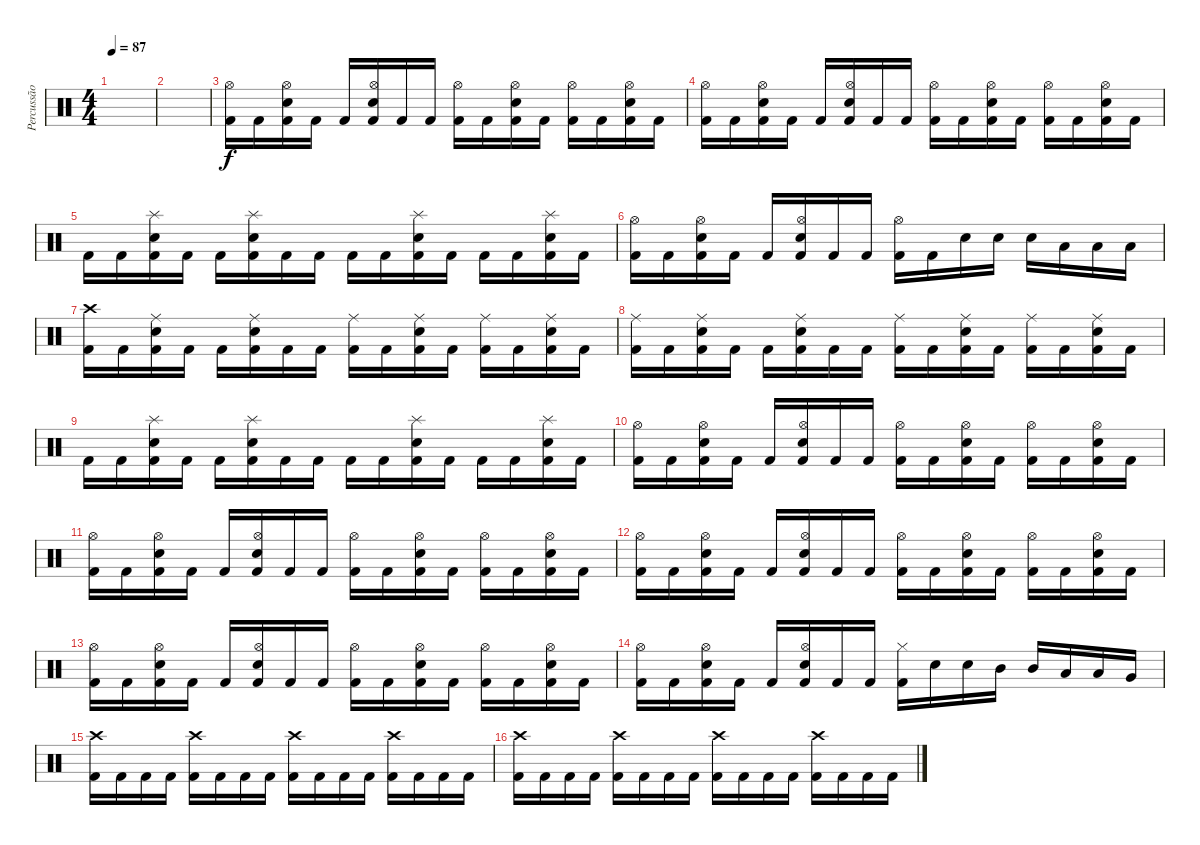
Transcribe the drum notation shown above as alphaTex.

\track ("Percussão" "Percussão") {instrument percussion}
\staff {score}
\articulation defaults
\ts (4 4)
\tempo 87
\clef neutral
\ks c
|
|
("Kick (hit) 2" "Hi-Hat (open)").16 "Kick (hit) 2".16 ("Kick (hit) 2" "Electric Snare (hit)" "Hi-Hat (open)").16 "Kick (hit) 2".16 "Kick (hit) 2".16 ("Kick (hit) 2" "Electric Snare (hit)" "Hi-Hat (open)").16 "Kick (hit) 2".16 "Kick (hit) 2".16 ("Kick (hit) 2" "Hi-Hat (open)").16 "Kick (hit) 2".16 ("Kick (hit) 2" "Electric Snare (hit)" "Hi-Hat (open)").16 "Kick (hit) 2".16 ("Kick (hit) 2" "Hi-Hat (open)").16 "Kick (hit) 2".16 ("Kick (hit) 2" "Electric Snare (hit)" "Hi-Hat (open)").16 "Kick (hit) 2".16 |
("Kick (hit) 2" "Hi-Hat (open)").16 "Kick (hit) 2".16 ("Kick (hit) 2" "Electric Snare (hit)" "Hi-Hat (open)").16 "Kick (hit) 2".16 "Kick (hit) 2".16 ("Kick (hit) 2" "Electric Snare (hit)" "Hi-Hat (open)").16 "Kick (hit) 2".16 "Kick (hit) 2".16 ("Kick (hit) 2" "Hi-Hat (open)").16 "Kick (hit) 2".16 ("Kick (hit) 2" "Electric Snare (hit)" "Hi-Hat (open)").16 "Kick (hit) 2".16 ("Kick (hit) 2" "Hi-Hat (open)").16 "Kick (hit) 2".16 ("Kick (hit) 2" "Electric Snare (hit)" "Hi-Hat (open)").16 "Kick (hit) 2".16 |
"Kick (hit) 2".16 "Kick (hit) 2".16 ("Kick (hit) 2" "Electric Snare (hit)" "Splash (hit)").16 "Kick (hit) 2".16 "Kick (hit) 2".16 ("Kick (hit) 2" "Electric Snare (hit)" "Splash (hit)").16 "Kick (hit) 2".16 "Kick (hit) 2".16 "Kick (hit) 2".16 "Kick (hit) 2".16 ("Kick (hit) 2" "Electric Snare (hit)" "Splash (hit)").16 "Kick (hit) 2".16 "Kick (hit) 2".16 "Kick (hit) 2".16 ("Kick (hit) 2" "Electric Snare (hit)" "Splash (hit)").16 "Kick (hit) 2".16 |
("Kick (hit) 2" "Hi-Hat (open)").16 "Kick (hit) 2".16 ("Kick (hit) 2" "Electric Snare (hit)" "Hi-Hat (open)").16 "Kick (hit) 2".16 "Kick (hit) 2".16 ("Kick (hit) 2" "Electric Snare (hit)" "Hi-Hat (open)").16 "Kick (hit) 2".16 "Kick (hit) 2".16 ("Kick (hit) 2" "Hi-Hat (open)").16 "Kick (hit) 2".16 "Electric Snare (hit)".16 "Electric Snare (hit)".16 "Electric Snare (hit)".16 "Low Floor Tom (hit)".16 "Low Floor Tom (hit)".16 "Low Floor Tom (hit)".16 |
("Kick (hit) 2" "Crash high (hit)").16 "Kick (hit) 2".16 ("Kick (hit) 2" "Electric Snare (hit)" "Ride (middle)").16 "Kick (hit) 2".16 "Kick (hit) 2".16 ("Kick (hit) 2" "Electric Snare (hit)" "Ride (middle)").16 "Kick (hit) 2".16 "Kick (hit) 2".16 ("Kick (hit) 2" "Ride (middle)").16 "Kick (hit) 2".16 ("Kick (hit) 2" "Electric Snare (hit)" "Ride (middle)").16 "Kick (hit) 2".16 ("Kick (hit) 2" "Ride (middle)").16 "Kick (hit) 2".16 ("Kick (hit) 2" "Electric Snare (hit)" "Ride (middle)").16 "Kick (hit) 2".16 |
("Kick (hit) 2" "Ride (middle)").16 "Kick (hit) 2".16 ("Kick (hit) 2" "Electric Snare (hit)" "Ride (middle)").16 "Kick (hit) 2".16 "Kick (hit) 2".16 ("Kick (hit) 2" "Electric Snare (hit)" "Ride (middle)").16 "Kick (hit) 2".16 "Kick (hit) 2".16 ("Kick (hit) 2" "Ride (middle)").16 "Kick (hit) 2".16 ("Kick (hit) 2" "Electric Snare (hit)" "Ride (middle)").16 "Kick (hit) 2".16 ("Kick (hit) 2" "Ride (middle)").16 "Kick (hit) 2".16 ("Kick (hit) 2" "Electric Snare (hit)" "Ride (middle)").16 "Kick (hit) 2".16 |
"Kick (hit) 2".16 "Kick (hit) 2".16 ("Kick (hit) 2" "Electric Snare (hit)" "Splash (hit)").16 "Kick (hit) 2".16 "Kick (hit) 2".16 ("Kick (hit) 2" "Electric Snare (hit)" "Splash (hit)").16 "Kick (hit) 2".16 "Kick (hit) 2".16 "Kick (hit) 2".16 "Kick (hit) 2".16 ("Kick (hit) 2" "Electric Snare (hit)" "Splash (hit)").16 "Kick (hit) 2".16 "Kick (hit) 2".16 "Kick (hit) 2".16 ("Kick (hit) 2" "Electric Snare (hit)" "Splash (hit)").16 "Kick (hit) 2".16 |
("Kick (hit) 2" "Hi-Hat (open)").16 "Kick (hit) 2".16 ("Kick (hit) 2" "Electric Snare (hit)" "Hi-Hat (open)").16 "Kick (hit) 2".16 "Kick (hit) 2".16 ("Kick (hit) 2" "Electric Snare (hit)" "Hi-Hat (open)").16 "Kick (hit) 2".16 "Kick (hit) 2".16 ("Kick (hit) 2" "Hi-Hat (open)").16 "Kick (hit) 2".16 ("Kick (hit) 2" "Electric Snare (hit)" "Hi-Hat (open)").16 "Kick (hit) 2".16 ("Kick (hit) 2" "Hi-Hat (open)").16 "Kick (hit) 2".16 ("Kick (hit) 2" "Electric Snare (hit)" "Hi-Hat (open)").16 "Kick (hit) 2".16 |
("Kick (hit) 2" "Hi-Hat (open)").16 "Kick (hit) 2".16 ("Kick (hit) 2" "Electric Snare (hit)" "Hi-Hat (open)").16 "Kick (hit) 2".16 "Kick (hit) 2".16 ("Kick (hit) 2" "Electric Snare (hit)" "Hi-Hat (open)").16 "Kick (hit) 2".16 "Kick (hit) 2".16 ("Kick (hit) 2" "Hi-Hat (open)").16 "Kick (hit) 2".16 ("Kick (hit) 2" "Electric Snare (hit)" "Hi-Hat (open)").16 "Kick (hit) 2".16 ("Kick (hit) 2" "Hi-Hat (open)").16 "Kick (hit) 2".16 ("Kick (hit) 2" "Electric Snare (hit)" "Hi-Hat (open)").16 "Kick (hit) 2".16 |
("Kick (hit) 2" "Hi-Hat (open)").16 "Kick (hit) 2".16 ("Kick (hit) 2" "Electric Snare (hit)" "Hi-Hat (open)").16 "Kick (hit) 2".16 "Kick (hit) 2".16 ("Kick (hit) 2" "Electric Snare (hit)" "Hi-Hat (open)").16 "Kick (hit) 2".16 "Kick (hit) 2".16 ("Kick (hit) 2" "Hi-Hat (open)").16 "Kick (hit) 2".16 ("Kick (hit) 2" "Electric Snare (hit)" "Hi-Hat (open)").16 "Kick (hit) 2".16 ("Kick (hit) 2" "Hi-Hat (open)").16 "Kick (hit) 2".16 ("Kick (hit) 2" "Electric Snare (hit)" "Hi-Hat (open)").16 "Kick (hit) 2".16 |
("Kick (hit) 2" "Hi-Hat (open)").16 "Kick (hit) 2".16 ("Kick (hit) 2" "Electric Snare (hit)" "Hi-Hat (open)").16 "Kick (hit) 2".16 "Kick (hit) 2".16 ("Kick (hit) 2" "Electric Snare (hit)" "Hi-Hat (open)").16 "Kick (hit) 2".16 "Kick (hit) 2".16 ("Kick (hit) 2" "Hi-Hat (open)").16 "Kick (hit) 2".16 ("Kick (hit) 2" "Electric Snare (hit)" "Hi-Hat (open)").16 "Kick (hit) 2".16 ("Kick (hit) 2" "Hi-Hat (open)").16 "Kick (hit) 2".16 ("Kick (hit) 2" "Electric Snare (hit)" "Hi-Hat (open)").16 "Kick (hit) 2".16 |
("Kick (hit) 2" "Hi-Hat (open)").16 "Kick (hit) 2".16 ("Kick (hit) 2" "Electric Snare (hit)" "Hi-Hat (open)").16 "Kick (hit) 2".16 "Kick (hit) 2".16 ("Kick (hit) 2" "Electric Snare (hit)" "Hi-Hat (open)").16 "Kick (hit) 2".16 "Kick (hit) 2".16 ("Kick (hit) 2" "Hi-Hat (closed)").16 "Electric Snare (hit)".16 "Electric Snare (hit)".16 "Mid Tom (hit)".16 "Mid Tom (hit)".16 "Low Tom (hit)".16 "Low Tom (hit)".16 "Very Low Tom (hit)".16 |
("Kick (hit) 2" "Crash high (hit)").16 "Kick (hit) 2".16 "Kick (hit) 2".16 "Kick (hit) 2".16 ("Kick (hit) 2" "Crash high (hit)").16 "Kick (hit) 2".16 "Kick (hit) 2".16 "Kick (hit) 2".16 ("Kick (hit) 2" "Crash high (hit)").16 "Kick (hit) 2".16 "Kick (hit) 2".16 "Kick (hit) 2".16 ("Kick (hit) 2" "Crash high (hit)").16 "Kick (hit) 2".16 "Kick (hit) 2".16 "Kick (hit) 2".16 |
("Kick (hit) 2" "Crash high (hit)").16 "Kick (hit) 2".16 "Kick (hit) 2".16 "Kick (hit) 2".16 ("Kick (hit) 2" "Crash high (hit)").16 "Kick (hit) 2".16 "Kick (hit) 2".16 "Kick (hit) 2".16 ("Kick (hit) 2" "Crash high (hit)").16 "Kick (hit) 2".16 "Kick (hit) 2".16 "Kick (hit) 2".16 ("Kick (hit) 2" "Crash high (hit)").16 "Kick (hit) 2".16 "Kick (hit) 2".16 "Kick (hit) 2".16
